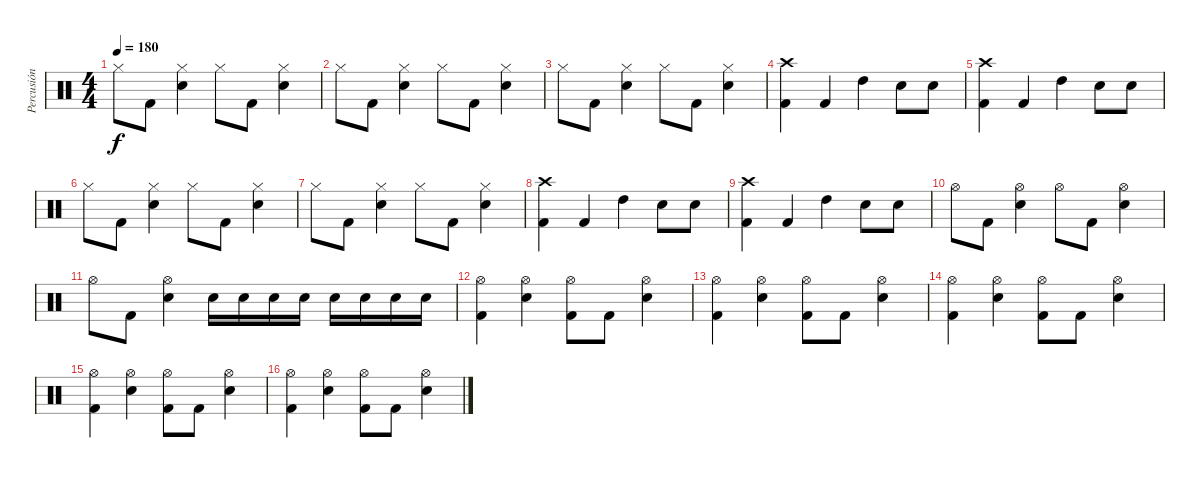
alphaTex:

\track ("Percusión" "Percusión") {instrument percussion}
\staff {score}
\articulation defaults
\ts (4 4)
\tempo 180
\clef neutral
\ks c "Hi-Hat (closed)".8{dy f} "Kick (hit) 2".8
("Electric Snare (hit)" "Hi-Hat (closed)").4 "Hi-Hat (closed)".8 "Kick (hit) 2".8 ("Electric Snare (hit)" "Hi-Hat (closed)").4 |
"Hi-Hat (closed)".8 "Kick (hit) 2".8 ("Electric Snare (hit)" "Hi-Hat (closed)").4 "Hi-Hat (closed)".8 "Kick (hit) 2".8 ("Electric Snare (hit)" "Hi-Hat (closed)").4 |
"Hi-Hat (closed)".8 "Kick (hit) 2".8 ("Electric Snare (hit)" "Hi-Hat (closed)").4 "Hi-Hat (closed)".8 "Kick (hit) 2".8 ("Electric Snare (hit)" "Hi-Hat (closed)").4 |
("Kick (hit) 2" "Crash high (hit)").4 "Kick (hit) 2".4 "High Tom (hit)".4 "Electric Snare (hit)".8 "Electric Snare (hit)".8 |
("Kick (hit) 2" "Crash high (hit)").4 "Kick (hit) 2".4 "High Tom (hit)".4 "Electric Snare (hit)".8 "Electric Snare (hit)".8 |
"Hi-Hat (closed)".8 "Kick (hit) 2".8 ("Electric Snare (hit)" "Hi-Hat (closed)").4 "Hi-Hat (closed)".8 "Kick (hit) 2".8 ("Electric Snare (hit)" "Hi-Hat (closed)").4 |
"Hi-Hat (closed)".8 "Kick (hit) 2".8 ("Electric Snare (hit)" "Hi-Hat (closed)").4 "Hi-Hat (closed)".8 "Kick (hit) 2".8 ("Electric Snare (hit)" "Hi-Hat (closed)").4 |
("Kick (hit) 2" "Crash high (hit)").4 "Kick (hit) 2".4 "High Tom (hit)".4 "Electric Snare (hit)".8 "Electric Snare (hit)".8 |
("Kick (hit) 2" "Crash high (hit)").4 "Kick (hit) 2".4 "High Tom (hit)".4 "Electric Snare (hit)".8 "Electric Snare (hit)".8 |
"Hi-Hat (open)".8 "Kick (hit) 2".8 ("Electric Snare (hit)" "Hi-Hat (open)").4 "Hi-Hat (open)".8 "Kick (hit) 2".8 ("Electric Snare (hit)" "Hi-Hat (open)").4 |
"Hi-Hat (open)".8 "Kick (hit) 2".8 ("Electric Snare (hit)" "Hi-Hat (open)").4 "Electric Snare (hit)".16 "Electric Snare (hit)".16 "Electric Snare (hit)".16 "Electric Snare (hit)".16 "Electric Snare (hit)".16 "Electric Snare (hit)".16 "Electric Snare (hit)".16 "Electric Snare (hit)".16 |
("Kick (hit) 2" "Hi-Hat (open)").4 ("Electric Snare (hit)" "Hi-Hat (open)").4 ("Kick (hit) 2" "Hi-Hat (open)").8 "Kick (hit) 2".8 ("Electric Snare (hit)" "Hi-Hat (open)").4 |
("Kick (hit) 2" "Hi-Hat (open)").4 ("Electric Snare (hit)" "Hi-Hat (open)").4 ("Kick (hit) 2" "Hi-Hat (open)").8 "Kick (hit) 2".8 ("Electric Snare (hit)" "Hi-Hat (open)").4 |
("Kick (hit) 2" "Hi-Hat (open)").4 ("Electric Snare (hit)" "Hi-Hat (open)").4 ("Kick (hit) 2" "Hi-Hat (open)").8 "Kick (hit) 2".8 ("Electric Snare (hit)" "Hi-Hat (open)").4 |
("Kick (hit) 2" "Hi-Hat (open)").4 ("Electric Snare (hit)" "Hi-Hat (open)").4 ("Kick (hit) 2" "Hi-Hat (open)").8 "Kick (hit) 2".8 ("Electric Snare (hit)" "Hi-Hat (open)").4 |
("Kick (hit) 2" "Hi-Hat (open)").4 ("Electric Snare (hit)" "Hi-Hat (open)").4 ("Kick (hit) 2" "Hi-Hat (open)").8 "Kick (hit) 2".8 ("Electric Snare (hit)" "Hi-Hat (open)").4
